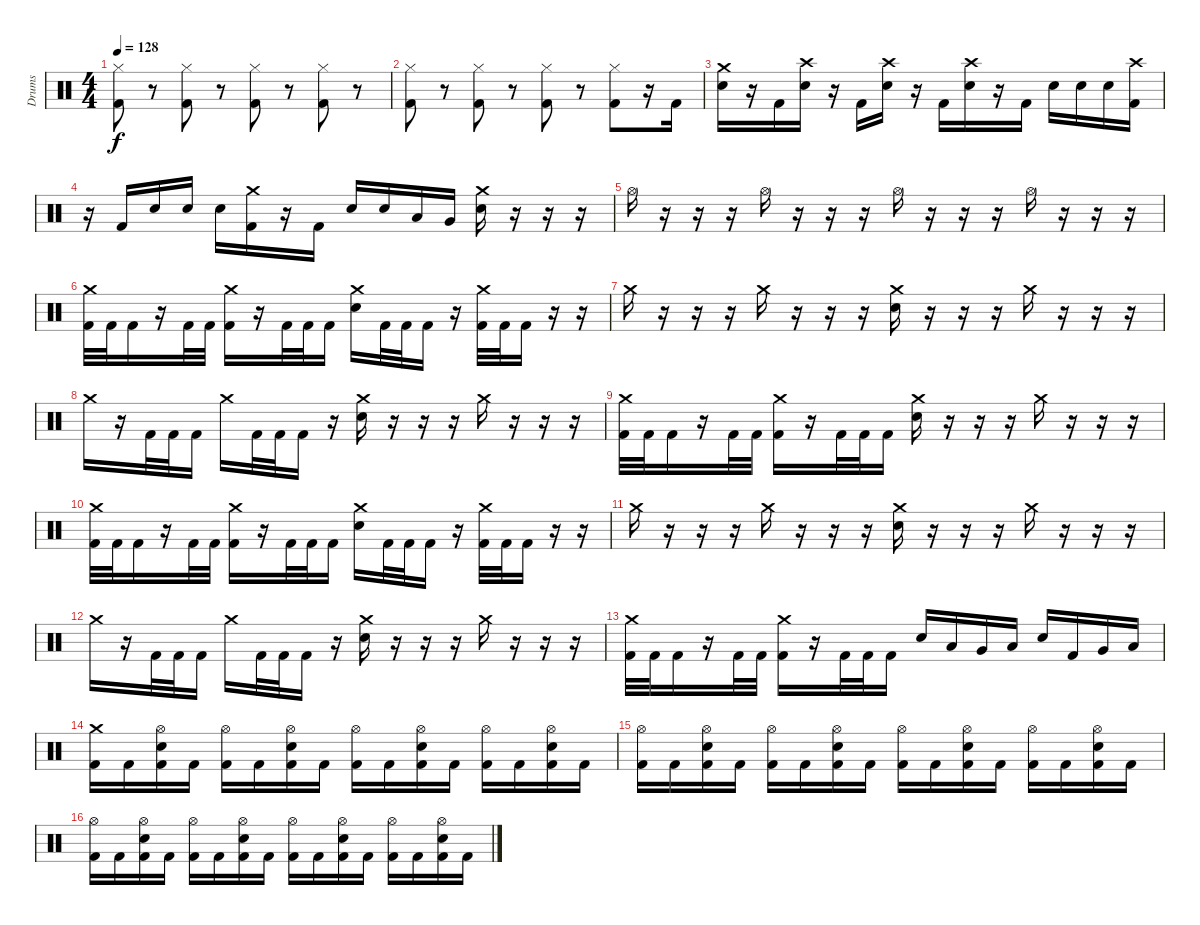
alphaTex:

\track ("Drums" "Drums") {instrument percussion}
\staff {score}
\articulation defaults
\ts (4 4)
\tempo 128
\clef neutral
\ks c
("Hi-Hat (closed)" "Kick (hit) 2").8{dy f} r.8 ("Hi-Hat (closed)" "Kick (hit) 2").8 r.8 ("Hi-Hat (closed)" "Kick (hit) 2").8 r.8 ("Hi-Hat (closed)" "Kick (hit) 2").8 r.8 |
("Hi-Hat (closed)" "Kick (hit) 2").8 r.8 ("Hi-Hat (closed)" "Kick (hit) 2").8 r.8 ("Hi-Hat (closed)" "Kick (hit) 2").8 r.8 ("Hi-Hat (closed)" "Kick (hit) 2").8 r.16 "Kick (hit) 2".16 |
("Crash medium (hit)" "Electric Snare (hit)").16 r.16 "Kick (hit) 2".16 ("Crash high (hit)" "Electric Snare (hit)").16 r.16 "Kick (hit) 2".16 ("Crash high (hit)" "Electric Snare (hit)").16 r.16 "Kick (hit) 2".16 ("Crash high (hit)" "Electric Snare (hit)").16 r.16 "Kick (hit) 2".16 "Electric Snare (hit)".16 "Electric Snare (hit)".16 "Electric Snare (hit)".16 ("Crash high (hit)" "Kick (hit) 2").16 |
r.16 "Kick (hit) 2".16 "Electric Snare (hit)".16 "Electric Snare (hit)".16 "Electric Snare (hit)".16 ("Crash medium (hit)" "Kick (hit) 2").16 r.16 "Kick (hit) 2".16 "Electric Snare (hit)".16 "Electric Snare (hit)".16 "Low Tom (hit)".16 "Very Low Tom (hit)".16 ("Crash medium (hit)" "Electric Snare (hit)").16 r.16 r.16 r.16 |
"Hi-Hat (open)".16 r.16 r.16 r.16 "Hi-Hat (open)".16 r.16 r.16 r.16 "Hi-Hat (open)".16 r.16 r.16 r.16 "Hi-Hat (open)".16 r.16 r.16 r.16 |
("Crash medium (hit)" "Kick (hit) 2").32 "Kick (hit) 2".32 "Kick (hit) 2".16 r.16 "Kick (hit) 2".32 "Kick (hit) 2".32 ("Crash medium (hit)" "Kick (hit) 2").16 r.16 "Kick (hit) 2".32 "Kick (hit) 2".32 "Kick (hit) 2".16 ("Crash medium (hit)" "Electric Snare (hit)").16 "Kick (hit) 2".32 "Kick (hit) 2".32 "Kick (hit) 2".16 r.16 ("Crash medium (hit)" "Kick (hit) 2").32 "Kick (hit) 2".32 "Kick (hit) 2".16 r.16 r.16 |
"Crash medium (hit)".16 r.16 r.16 r.16 "Crash medium (hit)".16 r.16 r.16 r.16 ("Crash medium (hit)" "Electric Snare (hit)").16 r.16 r.16 r.16 "Crash medium (hit)".16 r.16 r.16 r.16 |
"Crash medium (hit)".16 r.16 "Kick (hit) 2".32 "Kick (hit) 2".32 "Kick (hit) 2".16 "Crash medium (hit)".16 "Kick (hit) 2".32 "Kick (hit) 2".32 "Kick (hit) 2".16 r.16 ("Crash medium (hit)" "Electric Snare (hit)").16 r.16 r.16 r.16 "Crash medium (hit)".16 r.16 r.16 r.16 |
("Crash medium (hit)" "Kick (hit) 2").32 "Kick (hit) 2".32 "Kick (hit) 2".16 r.16 "Kick (hit) 2".32 "Kick (hit) 2".32 ("Crash medium (hit)" "Kick (hit) 2").16 r.16 "Kick (hit) 2".32 "Kick (hit) 2".32 "Kick (hit) 2".16 ("Crash medium (hit)" "Electric Snare (hit)").16 r.16 r.16 r.16 "Crash medium (hit)".16 r.16 r.16 r.16 |
("Crash medium (hit)" "Kick (hit) 2").32 "Kick (hit) 2".32 "Kick (hit) 2".16 r.16 "Kick (hit) 2".32 "Kick (hit) 2".32 ("Crash medium (hit)" "Kick (hit) 2").16 r.16 "Kick (hit) 2".32 "Kick (hit) 2".32 "Kick (hit) 2".16 ("Crash medium (hit)" "Electric Snare (hit)").16 "Kick (hit) 2".32 "Kick (hit) 2".32 "Kick (hit) 2".16 r.16 ("Crash medium (hit)" "Kick (hit) 2").32 "Kick (hit) 2".32 "Kick (hit) 2".16 r.16 r.16 |
"Crash medium (hit)".16 r.16 r.16 r.16 "Crash medium (hit)".16 r.16 r.16 r.16 ("Crash medium (hit)" "Electric Snare (hit)").16 r.16 r.16 r.16 "Crash medium (hit)".16 r.16 r.16 r.16 |
"Crash medium (hit)".16 r.16 "Kick (hit) 2".32 "Kick (hit) 2".32 "Kick (hit) 2".16 "Crash medium (hit)".16 "Kick (hit) 2".32 "Kick (hit) 2".32 "Kick (hit) 2".16 r.16 ("Crash medium (hit)" "Electric Snare (hit)").16 r.16 r.16 r.16 "Crash medium (hit)".16 r.16 r.16 r.16 |
("Crash medium (hit)" "Kick (hit) 2").32 "Kick (hit) 2".32 "Kick (hit) 2".16 r.16 "Kick (hit) 2".32 "Kick (hit) 2".32 ("Crash medium (hit)" "Kick (hit) 2").16 r.16 "Kick (hit) 2".32 "Kick (hit) 2".32 "Kick (hit) 2".16 "Electric Snare (hit)".16 "Low Tom (hit)".16 "Very Low Tom (hit)".16 "Low Floor Tom (hit)".16 "Electric Snare (hit)".16 "Kick (hit) 2".16 "Very Low Tom (hit)".16 "Low Floor Tom (hit)".16 |
("Crash medium (hit)" "Kick (hit) 2").16 "Kick (hit) 2".16 ("Hi-Hat (open)" "Electric Snare (hit)" "Kick (hit) 2").16 "Kick (hit) 2".16 ("Hi-Hat (open)" "Kick (hit) 2").16 "Kick (hit) 2".16 ("Hi-Hat (open)" "Electric Snare (hit)" "Kick (hit) 2").16 "Kick (hit) 2".16 ("Hi-Hat (open)" "Kick (hit) 2").16 "Kick (hit) 2".16 ("Hi-Hat (open)" "Electric Snare (hit)" "Kick (hit) 2").16 "Kick (hit) 2".16 ("Hi-Hat (open)" "Kick (hit) 2").16 "Kick (hit) 2".16 ("Hi-Hat (open)" "Electric Snare (hit)" "Kick (hit) 2").16 "Kick (hit) 2".16 |
("Hi-Hat (open)" "Kick (hit) 2").16 "Kick (hit) 2".16 ("Hi-Hat (open)" "Electric Snare (hit)" "Kick (hit) 2").16 "Kick (hit) 2".16 ("Hi-Hat (open)" "Kick (hit) 2").16 "Kick (hit) 2".16 ("Hi-Hat (open)" "Electric Snare (hit)" "Kick (hit) 2").16 "Kick (hit) 2".16 ("Hi-Hat (open)" "Kick (hit) 2").16 "Kick (hit) 2".16 ("Hi-Hat (open)" "Electric Snare (hit)" "Kick (hit) 2").16 "Kick (hit) 2".16 ("Hi-Hat (open)" "Kick (hit) 2").16 "Kick (hit) 2".16 ("Hi-Hat (open)" "Electric Snare (hit)" "Kick (hit) 2").16 "Kick (hit) 2".16 |
("Hi-Hat (open)" "Kick (hit) 2").16 "Kick (hit) 2".16 ("Hi-Hat (open)" "Electric Snare (hit)" "Kick (hit) 2").16 "Kick (hit) 2".16 ("Hi-Hat (open)" "Kick (hit) 2").16 "Kick (hit) 2".16 ("Hi-Hat (open)" "Electric Snare (hit)" "Kick (hit) 2").16 "Kick (hit) 2".16 ("Hi-Hat (open)" "Kick (hit) 2").16 "Kick (hit) 2".16 ("Hi-Hat (open)" "Electric Snare (hit)" "Kick (hit) 2").16 "Kick (hit) 2".16 ("Hi-Hat (open)" "Kick (hit) 2").16 "Kick (hit) 2".16 ("Hi-Hat (open)" "Electric Snare (hit)" "Kick (hit) 2").16 "Kick (hit) 2".16
